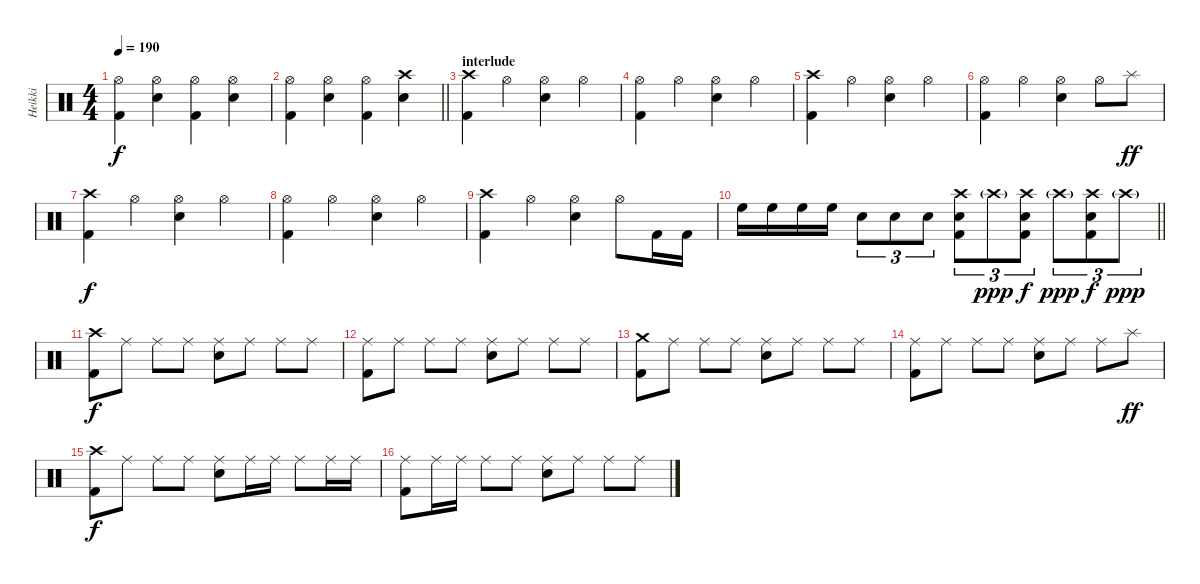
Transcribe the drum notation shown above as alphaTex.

\track ("Heikki" "Heikki") {instrument percussion}
\staff {score}
\articulation defaults
\ts (4 4)
\tempo 190
\clef neutral
\ks c
("Hi-Hat (open)" "Kick (hit) 2").4{dy f} ("Hi-Hat (open)" "Electric Snare (hit)").4 ("Hi-Hat (open)" "Kick (hit) 2").4 ("Hi-Hat (open)" "Electric Snare (hit)").4 |
\barLineRight lightlight
("Hi-Hat (open)" "Kick (hit) 2").4 ("Hi-Hat (open)" "Electric Snare (hit)").4 ("Hi-Hat (open)" "Kick (hit) 2").4 ("Crash high (hit)" "Electric Snare (hit)").4 |
\section ("" "interlude")
("Crash high (hit)" "Kick (hit) 2").4 "Hi-Hat (open)".4 ("Hi-Hat (open)" "Electric Snare (hit)").4 "Hi-Hat (open)".4 |
("Hi-Hat (open)" "Kick (hit) 2").4 "Hi-Hat (open)".4 ("Hi-Hat (open)" "Electric Snare (hit)").4 "Hi-Hat (open)".4 |
("Crash high (hit)" "Kick (hit) 2").4 "Hi-Hat (open)".4 ("Hi-Hat (open)" "Electric Snare (hit)").4 "Hi-Hat (open)".4 |
("Hi-Hat (open)" "Kick (hit) 2").4 "Hi-Hat (open)".4 ("Hi-Hat (open)" "Electric Snare (hit)").4 "Hi-Hat (open)".8 "Splash (hit)".8{dy ff} |
("Crash high (hit)" "Kick (hit) 2").4{dy f} "Hi-Hat (open)".4 ("Hi-Hat (open)" "Electric Snare (hit)").4 "Hi-Hat (open)".4 |
("Hi-Hat (open)" "Kick (hit) 2").4 "Hi-Hat (open)".4 ("Hi-Hat (open)" "Electric Snare (hit)").4 "Hi-Hat (open)".4 |
("Crash high (hit)" "Kick (hit) 2").4 "Hi-Hat (open)".4 ("Hi-Hat (open)" "Electric Snare (hit)").4 "Hi-Hat (open)".8 "Kick (hit) 2".16 "Kick (hit) 2".16 |
\barLineRight lightlight "High Floor Tom (hit)".16 "High Floor Tom (hit)".16 "High Floor Tom (hit)".16 "High Floor Tom (hit)".16 "Electric Snare (hit)".8{tu (3 2)} "Electric Snare (hit)".8{tu (3 2)} "Electric Snare (hit)".8{tu (3 2)}
("Crash high (hit)"{pm} "Electric Snare (hit)" "Kick (hit) 2").8{tu (3 2)} "Crash high (hit)"{g}.8{tu (3 2) dy ppp} ("Crash high (hit)"{pm} "Electric Snare (hit)" "Kick (hit) 2").8{tu (3 2) dy f} "Crash high (hit)"{g}.8{tu (3 2) dy ppp} ("Crash high (hit)"{pm} "Electric Snare (hit)" "Kick (hit) 2").8{tu (3 2) dy f} "Crash high (hit)"{g}.8{tu (3 2) dy ppp} |
\section ("" "")
("Crash high (hit)" "Kick (hit) 2").8{dy f} "Ride (middle)".8 "Ride (middle)".8 "Ride (middle)".8 ("Ride (middle)" "Electric Snare (hit)").8 "Ride (middle)".8 "Ride (middle)".8 "Ride (middle)".8 |
("Ride (middle)" "Kick (hit) 2").8 "Ride (middle)".8 "Ride (middle)".8 "Ride (middle)".8 ("Ride (middle)" "Electric Snare (hit)").8 "Ride (middle)".8 "Ride (middle)".8 "Ride (middle)".8 |
("Crash medium (hit)" "Kick (hit) 2").8 "Ride (middle)".8 "Ride (middle)".8 "Ride (middle)".8 ("Ride (middle)" "Electric Snare (hit)").8 "Ride (middle)".8 "Ride (middle)".8 "Ride (middle)".8 |
("Ride (middle)" "Kick (hit) 2").8 "Ride (middle)".8 "Ride (middle)".8 "Ride (middle)".8 ("Ride (middle)" "Electric Snare (hit)").8 "Ride (middle)".8 "Ride (middle)".8 "Splash (hit)".8{dy ff} |
("Crash high (hit)" "Kick (hit) 2").8{dy f} "Ride (middle)".8 "Ride (middle)".8 "Ride (middle)".8 ("Ride (middle)" "Electric Snare (hit)").8 "Ride (middle)".16 "Ride (middle)".16 "Ride (middle)".8 "Ride (middle)".16 "Ride (middle)".16 |
("Ride (middle)" "Kick (hit) 2").8 "Ride (middle)".16 "Ride (middle)".16 "Ride (middle)".8 "Ride (middle)".8 ("Ride (middle)" "Electric Snare (hit)").8 "Ride (middle)".8 "Ride (middle)".8 "Ride (middle)".8
